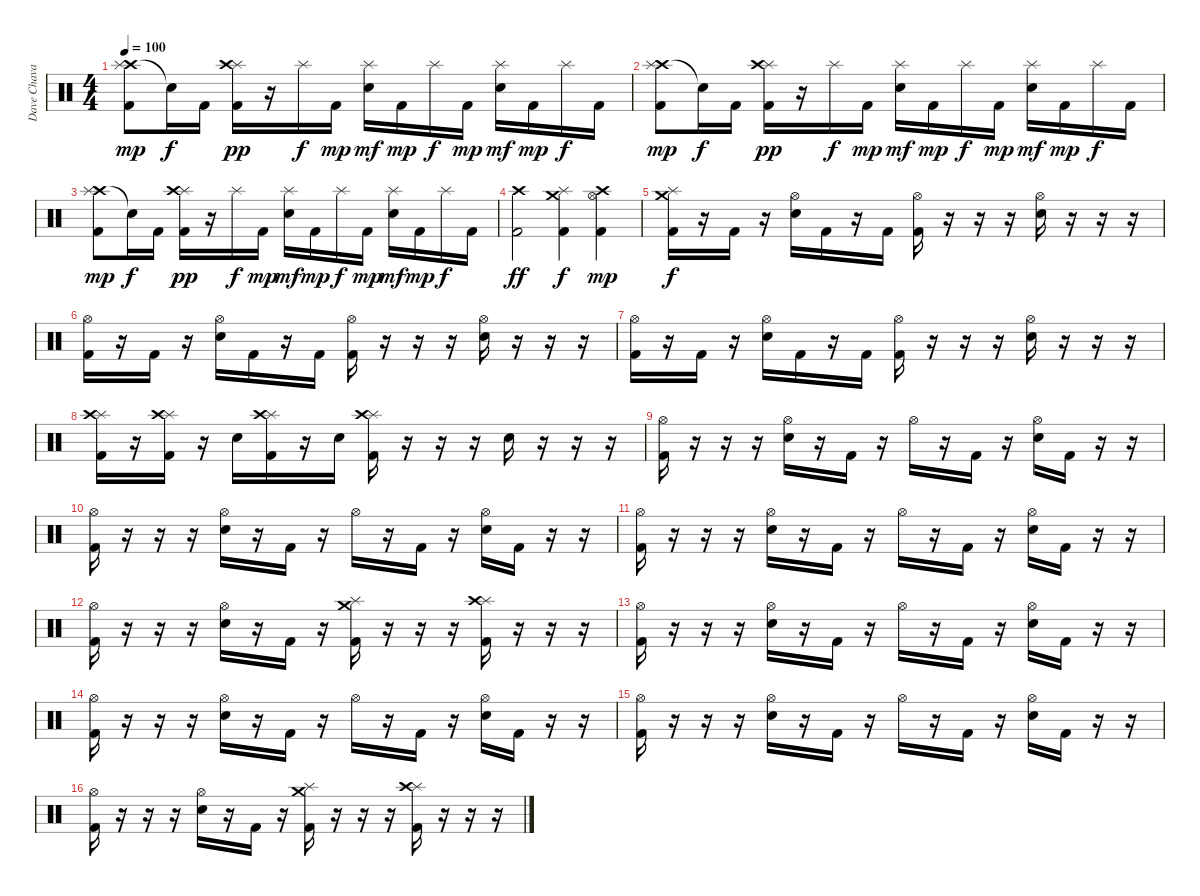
\track ("Dave Chavarri" "Dave Chava") {instrument percussion}
\staff {score}
\articulation defaults
\ts (4 4)
\tempo 100
\clef neutral
\ks c
("Crash high (hit)" "Splash (hit)" "Kick (hit) 2").8{dy mp} "Snare (hit)"{t}.16{dy f} "Kick (hit) 2".16 ("Splash (hit)" "Crash high (hit)" "Kick (hit) 2").16{dy pp} r.16 "Splash (hit)".16{dy f} "Kick (hit) 2".16{dy mp} ("Splash (hit)" "Snare (hit) 2").16{dy mf} "Kick (hit) 2".16{dy mp} "Splash (hit)".16{dy f} "Kick (hit) 2".16{dy mp} ("Splash (hit)" "Snare (hit) 2").16{dy mf} "Kick (hit) 2".16{dy mp} "Splash (hit)".16{dy f} "Kick (hit) 2".16 |
("Crash high (hit)" "Splash (hit)" "Kick (hit) 2").8{dy mp} "Snare (hit)"{t}.16{dy f} "Kick (hit) 2".16 ("Splash (hit)" "Crash high (hit)" "Kick (hit) 2").16{dy pp} r.16 "Splash (hit)".16{dy f} "Kick (hit) 2".16{dy mp} ("Splash (hit)" "Snare (hit) 2").16{dy mf} "Kick (hit) 2".16{dy mp} "Splash (hit)".16{dy f} "Kick (hit) 2".16{dy mp} ("Splash (hit)" "Snare (hit) 2").16{dy mf} "Kick (hit) 2".16{dy mp} "Splash (hit)".16{dy f} "Kick (hit) 2".16 |
("Crash high (hit)" "Splash (hit)" "Kick (hit) 2").8{dy mp} "Snare (hit)"{t}.16{dy f} "Kick (hit) 2".16 ("Splash (hit)" "Crash high (hit)" "Kick (hit) 2").16{dy pp} r.16 "Splash (hit)".16{dy f} "Kick (hit) 2".16{dy mp} ("Splash (hit)" "Snare (hit) 2").16{dy mf} "Kick (hit) 2".16{dy mp} "Splash (hit)".16{dy f} "Kick (hit) 2".16{dy mp} ("Splash (hit)" "Snare (hit) 2").16{dy mf} "Kick (hit) 2".16{dy mp} "Splash (hit)".16{dy f} "Kick (hit) 2".16 |
("Crash high (hit)" "Kick (hit) 2").2{dy ff} ("Crash medium (hit)" "Splash (hit)" "Kick (hit) 2").4{dy f} ("Crash high (hit)" "Hi-Hat (open)" "Kick (hit) 2").4{dy mp} |
("Splash (hit)" "Crash medium (hit)" "Kick (hit) 2").16{dy f} r.16 "Kick (hit) 2".16 r.16 ("Hi-Hat (open)" "Snare (hit) 2").16 "Kick (hit) 2".16 r.16 "Kick (hit) 2".16 ("Hi-Hat (open)" "Kick (hit) 2").16 r.16 r.16 r.16 ("Hi-Hat (open)" "Snare (hit) 2").16 r.16 r.16 r.16 |
("Hi-Hat (open)" "Kick (hit) 2").16 r.16 "Kick (hit) 2".16 r.16 ("Hi-Hat (open)" "Snare (hit) 2").16 "Kick (hit) 2".16 r.16 "Kick (hit) 2".16 ("Hi-Hat (open)" "Kick (hit) 2").16 r.16 r.16 r.16 ("Hi-Hat (open)" "Snare (hit) 2").16 r.16 r.16 r.16 |
("Hi-Hat (open)" "Kick (hit) 2").16 r.16 "Kick (hit) 2".16 r.16 ("Hi-Hat (open)" "Snare (hit) 2").16 "Kick (hit) 2".16 r.16 "Kick (hit) 2".16 ("Hi-Hat (open)" "Kick (hit) 2").16 r.16 r.16 r.16 ("Hi-Hat (open)" "Snare (hit) 2").16 r.16 r.16 r.16 |
("Splash (hit)" "Crash high (hit)" "Kick (hit) 2").16 r.16 ("Splash (hit)" "Crash high (hit)" "Kick (hit) 2").16 r.16 "Snare (hit) 2".16 ("Splash (hit)" "Crash high (hit)" "Kick (hit) 2").16 r.16 "Snare (hit) 2".16 ("Splash (hit)" "Crash high (hit)" "Kick (hit) 2").16 r.16 r.16 r.16 "Snare (hit) 2".16 r.16 r.16 r.16 |
("Hi-Hat (open)" "Kick (hit) 2").16 r.16 r.16 r.16 ("Hi-Hat (open)" "Snare (hit) 2").16 r.16 "Kick (hit) 2".16 r.16 "Hi-Hat (open)".16 r.16 "Kick (hit) 2".16 r.16 ("Hi-Hat (open)" "Snare (hit) 2").16 "Kick (hit) 2".16 r.16 r.16 |
("Hi-Hat (open)" "Kick (hit) 2").16 r.16 r.16 r.16 ("Hi-Hat (open)" "Snare (hit) 2").16 r.16 "Kick (hit) 2".16 r.16 "Hi-Hat (open)".16 r.16 "Kick (hit) 2".16 r.16 ("Hi-Hat (open)" "Snare (hit) 2").16 "Kick (hit) 2".16 r.16 r.16 |
("Hi-Hat (open)" "Kick (hit) 2").16 r.16 r.16 r.16 ("Hi-Hat (open)" "Snare (hit) 2").16 r.16 "Kick (hit) 2".16 r.16 "Hi-Hat (open)".16 r.16 "Kick (hit) 2".16 r.16 ("Hi-Hat (open)" "Snare (hit) 2").16 "Kick (hit) 2".16 r.16 r.16 |
("Hi-Hat (open)" "Kick (hit) 2").16 r.16 r.16 r.16 ("Hi-Hat (open)" "Snare (hit) 2").16 r.16 "Kick (hit) 2".16 r.16 ("Splash (hit)" "Crash medium (hit)" "Kick (hit) 2").16 r.16 r.16 r.16 ("Splash (hit)" "Crash high (hit)" "Kick (hit) 2").16 r.16 r.16 r.16 |
("Hi-Hat (open)" "Kick (hit) 2").16 r.16 r.16 r.16 ("Hi-Hat (open)" "Snare (hit) 2").16 r.16 "Kick (hit) 2".16 r.16 "Hi-Hat (open)".16 r.16 "Kick (hit) 2".16 r.16 ("Hi-Hat (open)" "Snare (hit) 2").16 "Kick (hit) 2".16 r.16 r.16 |
("Hi-Hat (open)" "Kick (hit) 2").16 r.16 r.16 r.16 ("Hi-Hat (open)" "Snare (hit) 2").16 r.16 "Kick (hit) 2".16 r.16 "Hi-Hat (open)".16 r.16 "Kick (hit) 2".16 r.16 ("Hi-Hat (open)" "Snare (hit) 2").16 "Kick (hit) 2".16 r.16 r.16 |
("Hi-Hat (open)" "Kick (hit) 2").16 r.16 r.16 r.16 ("Hi-Hat (open)" "Snare (hit) 2").16 r.16 "Kick (hit) 2".16 r.16 "Hi-Hat (open)".16 r.16 "Kick (hit) 2".16 r.16 ("Hi-Hat (open)" "Snare (hit) 2").16 "Kick (hit) 2".16 r.16 r.16 |
("Hi-Hat (open)" "Kick (hit) 2").16 r.16 r.16 r.16 ("Hi-Hat (open)" "Snare (hit) 2").16 r.16 "Kick (hit) 2".16 r.16 ("Splash (hit)" "Crash medium (hit)" "Kick (hit) 2").16 r.16 r.16 r.16 ("Splash (hit)" "Crash high (hit)" "Kick (hit) 2").16 r.16 r.16 r.16
